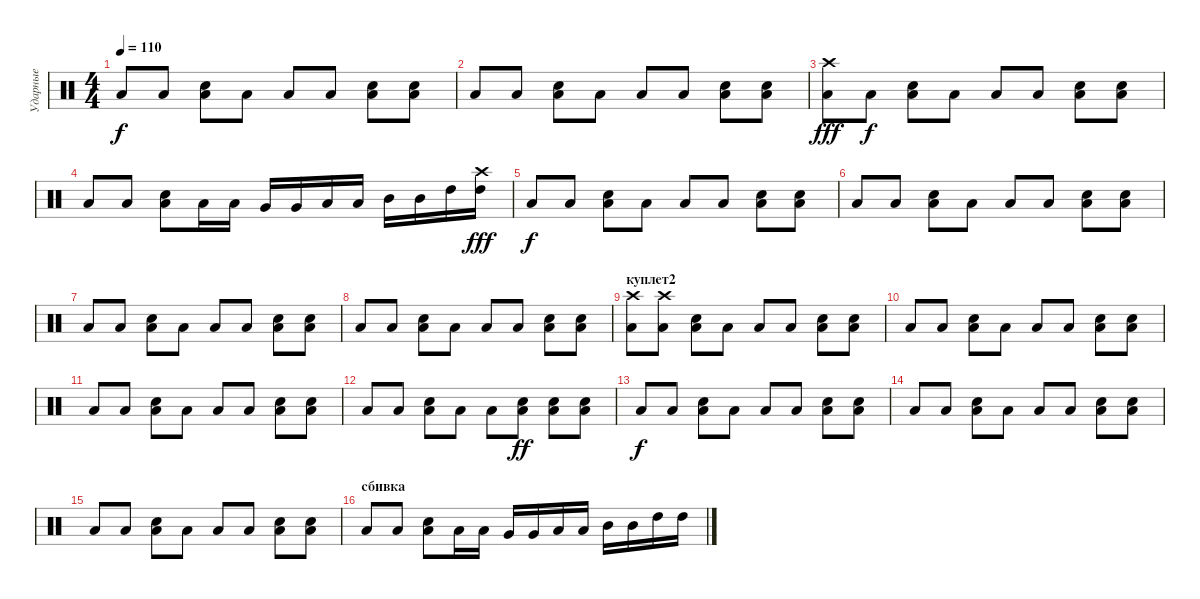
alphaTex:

\track ("Ударные" "Ударные") {instrument percussion}
\staff {score}
\articulation defaults
\ts (4 4)
\tempo 110
\clef neutral
\ks c "Low Floor Tom (hit)".8{dy f} "Low Floor Tom (hit)".8
("Snare (hit) 2" "Low Floor Tom (hit)").8 "Low Floor Tom (hit)".8 "Low Floor Tom (hit)".8 "Low Floor Tom (hit)".8 ("Snare (hit) 2" "Low Floor Tom (hit)").8 ("Snare (hit) 2" "Low Floor Tom (hit)").8 |
"Low Floor Tom (hit)".8 "Low Floor Tom (hit)".8 ("Snare (hit) 2" "Low Floor Tom (hit)").8 "Low Floor Tom (hit)".8 "Low Floor Tom (hit)".8 "Low Floor Tom (hit)".8 ("Snare (hit) 2" "Low Floor Tom (hit)").8 ("Snare (hit) 2" "Low Floor Tom (hit)").8 |
("Crash high (hit)" "Low Floor Tom (hit)").8{dy fff} "Low Floor Tom (hit)".8{dy f} ("Snare (hit) 2" "Low Floor Tom (hit)").8 "Low Floor Tom (hit)".8 "Low Floor Tom (hit)".8 "Low Floor Tom (hit)".8 ("Snare (hit) 2" "Low Floor Tom (hit)").8 ("Snare (hit) 2" "Low Floor Tom (hit)").8 |
"Low Floor Tom (hit)".8 "Low Floor Tom (hit)".8 ("Snare (hit) 2" "Low Floor Tom (hit)").8 "Low Floor Tom (hit)".16 "Low Floor Tom (hit)".16 "Very Low Tom (hit)".16 "Very Low Tom (hit)".16 "Low Tom (hit)".16 "Low Tom (hit)".16 "Mid Tom (hit)".16 "Mid Tom (hit)".16 "High Tom (hit)".16 ("Crash high (hit)" "High Tom (hit)").16{dy fff} |
"Low Floor Tom (hit)".8{dy f} "Low Floor Tom (hit)".8 ("Snare (hit) 2" "Low Floor Tom (hit)").8 "Low Floor Tom (hit)".8 "Low Floor Tom (hit)".8 "Low Floor Tom (hit)".8 ("Snare (hit) 2" "Low Floor Tom (hit)").8 ("Snare (hit) 2" "Low Floor Tom (hit)").8 |
"Low Floor Tom (hit)".8 "Low Floor Tom (hit)".8 ("Snare (hit) 2" "Low Floor Tom (hit)").8 "Low Floor Tom (hit)".8 "Low Floor Tom (hit)".8 "Low Floor Tom (hit)".8 ("Snare (hit) 2" "Low Floor Tom (hit)").8 ("Snare (hit) 2" "Low Floor Tom (hit)").8 |
"Low Floor Tom (hit)".8 "Low Floor Tom (hit)".8 ("Snare (hit) 2" "Low Floor Tom (hit)").8 "Low Floor Tom (hit)".8 "Low Floor Tom (hit)".8 "Low Floor Tom (hit)".8 ("Snare (hit) 2" "Low Floor Tom (hit)").8 ("Snare (hit) 2" "Low Floor Tom (hit)").8 |
"Low Floor Tom (hit)".8 "Low Floor Tom (hit)".8 ("Snare (hit) 2" "Low Floor Tom (hit)").8 "Low Floor Tom (hit)".8 "Low Floor Tom (hit)".8 "Low Floor Tom (hit)".8 ("Snare (hit) 2" "Low Floor Tom (hit)").8 ("Snare (hit) 2" "Low Floor Tom (hit)").8 |
\section ("" "куплет2")
("Crash high (hit)" "Low Floor Tom (hit)").8 ("Crash high (hit)" "Low Floor Tom (hit)").8 ("Snare (hit) 2" "Low Floor Tom (hit)").8 "Low Floor Tom (hit)".8 "Low Floor Tom (hit)".8 "Low Floor Tom (hit)".8 ("Snare (hit) 2" "Low Floor Tom (hit)").8 ("Snare (hit) 2" "Low Floor Tom (hit)").8 |
"Low Floor Tom (hit)".8 "Low Floor Tom (hit)".8 ("Snare (hit) 2" "Low Floor Tom (hit)").8 "Low Floor Tom (hit)".8 "Low Floor Tom (hit)".8 "Low Floor Tom (hit)".8 ("Snare (hit) 2" "Low Floor Tom (hit)").8 ("Snare (hit) 2" "Low Floor Tom (hit)").8 |
"Low Floor Tom (hit)".8 "Low Floor Tom (hit)".8 ("Snare (hit) 2" "Low Floor Tom (hit)").8 "Low Floor Tom (hit)".8 "Low Floor Tom (hit)".8 "Low Floor Tom (hit)".8 ("Snare (hit) 2" "Low Floor Tom (hit)").8 ("Snare (hit) 2" "Low Floor Tom (hit)").8 |
"Low Floor Tom (hit)".8 "Low Floor Tom (hit)".8 ("Snare (hit) 2" "Low Floor Tom (hit)").8 "Low Floor Tom (hit)".8 "Low Floor Tom (hit)".8 ("Snare (hit) 2" "Low Floor Tom (hit)").8{dy ff} ("Snare (hit) 2" "Low Floor Tom (hit)").8 ("Snare (hit) 2" "Low Floor Tom (hit)").8 |
"Low Floor Tom (hit)".8{dy f} "Low Floor Tom (hit)".8 ("Snare (hit) 2" "Low Floor Tom (hit)").8 "Low Floor Tom (hit)".8 "Low Floor Tom (hit)".8 "Low Floor Tom (hit)".8 ("Snare (hit) 2" "Low Floor Tom (hit)").8 ("Snare (hit) 2" "Low Floor Tom (hit)").8 |
"Low Floor Tom (hit)".8 "Low Floor Tom (hit)".8 ("Snare (hit) 2" "Low Floor Tom (hit)").8 "Low Floor Tom (hit)".8 "Low Floor Tom (hit)".8 "Low Floor Tom (hit)".8 ("Snare (hit) 2" "Low Floor Tom (hit)").8 ("Snare (hit) 2" "Low Floor Tom (hit)").8 |
"Low Floor Tom (hit)".8 "Low Floor Tom (hit)".8 ("Snare (hit) 2" "Low Floor Tom (hit)").8 "Low Floor Tom (hit)".8 "Low Floor Tom (hit)".8 "Low Floor Tom (hit)".8 ("Snare (hit) 2" "Low Floor Tom (hit)").8 ("Snare (hit) 2" "Low Floor Tom (hit)").8 |
\section ("" "сбивка")
"Low Floor Tom (hit)".8 "Low Floor Tom (hit)".8 ("Snare (hit) 2" "Low Floor Tom (hit)").8 "Low Floor Tom (hit)".16 "Low Floor Tom (hit)".16 "Very Low Tom (hit)".16 "Very Low Tom (hit)".16 "Low Tom (hit)".16 "Low Tom (hit)".16 "Mid Tom (hit)".16 "Mid Tom (hit)".16 "High Tom (hit)".16 "High Tom (hit)".16
